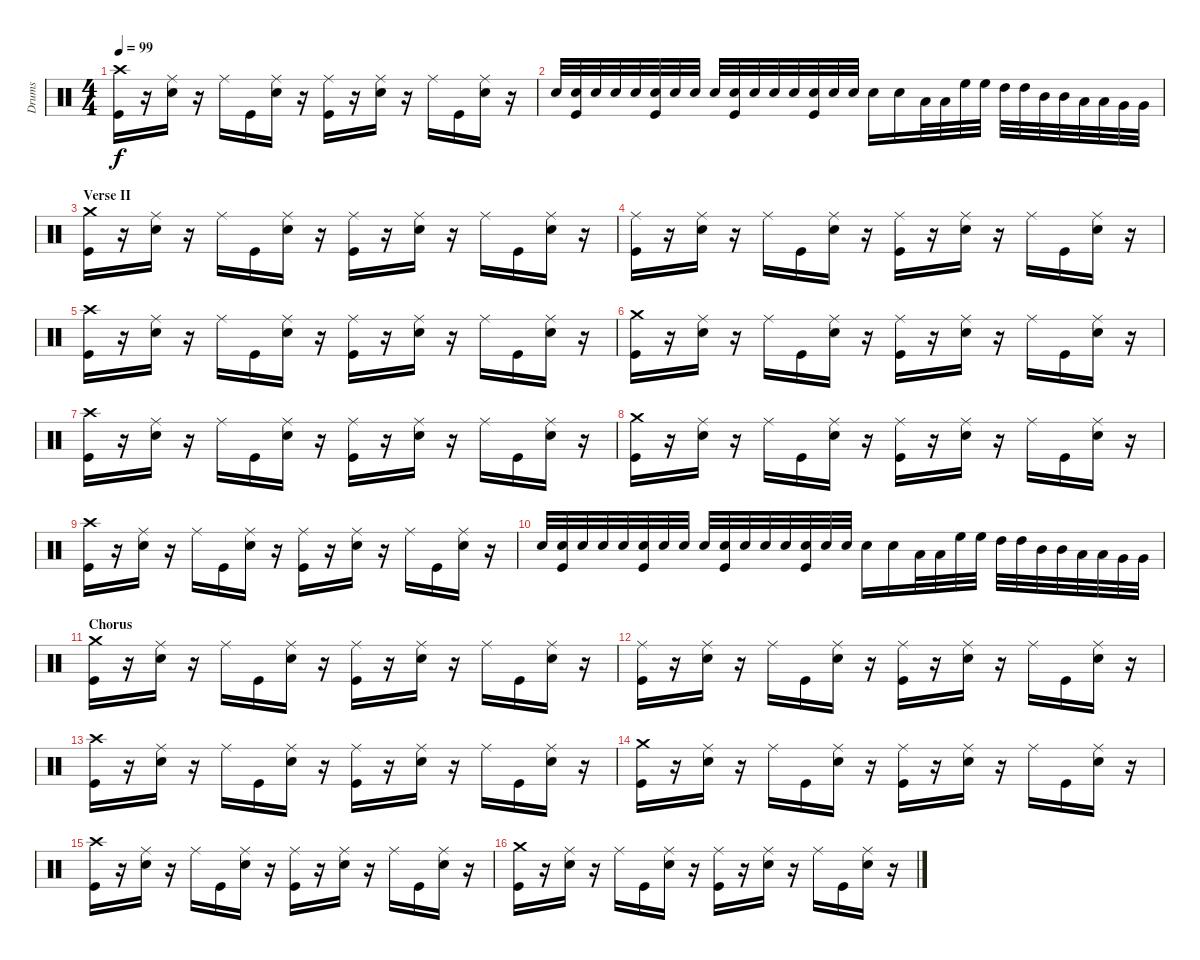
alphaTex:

\track ("Drums" "Drums") {instrument percussion}
\staff {score}
\articulation defaults
\ts (4 4)
\tempo 99
\clef neutral
\ks c
("Crash high (hit)" "Kick (hit)").16{dy f} r.16 ("Ride (middle)" "Electric Snare (hit)").16 r.16 "Ride (middle)".16 "Kick (hit)".16 ("Ride (middle)" "Electric Snare (hit)").16 r.16 ("Ride (middle)" "Kick (hit)").16 r.16 ("Ride (middle)" "Electric Snare (hit)").16 r.16 "Ride (middle)".16 "Kick (hit)".16 ("Ride (middle)" "Electric Snare (hit)").16 r.16 |
"Electric Snare (hit)".32 ("Electric Snare (hit)" "Kick (hit)").32 "Electric Snare (hit)".32 "Electric Snare (hit)".32 "Electric Snare (hit)".32 ("Electric Snare (hit)" "Kick (hit)").32 "Electric Snare (hit)".32 "Electric Snare (hit)".32 "Electric Snare (hit)".32 ("Electric Snare (hit)" "Kick (hit)").32 "Electric Snare (hit)".32 "Electric Snare (hit)".32 "Electric Snare (hit)".32 ("Electric Snare (hit)" "Kick (hit)").32 "Electric Snare (hit)".32 "Electric Snare (hit)".32 "Electric Snare (hit)".16 "Electric Snare (hit)".16 "Low Floor Tom (hit)".32 "Low Floor Tom (hit)".32 "High Floor Tom (hit)".32 "High Floor Tom (hit)".32 "High Tom (hit)".32 "High Tom (hit)".32 "Mid Tom (hit)".32 "Mid Tom (hit)".32 "Low Tom (hit)".32 "Low Tom (hit)".32 "Very Low Tom (hit)".32 "Very Low Tom (hit)".32 |
\section ("" "Verse II")
("Crash medium (hit)" "Kick (hit)").16 r.16 ("Ride (middle)" "Electric Snare (hit)").16 r.16 "Ride (middle)".16 "Kick (hit)".16 ("Ride (middle)" "Electric Snare (hit)").16 r.16 ("Ride (middle)" "Kick (hit)").16 r.16 ("Ride (middle)" "Electric Snare (hit)").16 r.16 "Ride (middle)".16 "Kick (hit)".16 ("Ride (middle)" "Electric Snare (hit)").16 r.16 |
("Ride (middle)" "Kick (hit)").16 r.16 ("Ride (middle)" "Electric Snare (hit)").16 r.16 "Ride (middle)".16 "Kick (hit)".16 ("Ride (middle)" "Electric Snare (hit)").16 r.16 ("Ride (middle)" "Kick (hit)").16 r.16 ("Ride (middle)" "Electric Snare (hit)").16 r.16 "Ride (middle)".16 "Kick (hit)".16 ("Ride (middle)" "Electric Snare (hit)").16 r.16 |
("Crash high (hit)" "Kick (hit)").16 r.16 ("Ride (middle)" "Electric Snare (hit)").16 r.16 "Ride (middle)".16 "Kick (hit)".16 ("Ride (middle)" "Electric Snare (hit)").16 r.16 ("Ride (middle)" "Kick (hit)").16 r.16 ("Ride (middle)" "Electric Snare (hit)").16 r.16 "Ride (middle)".16 "Kick (hit)".16 ("Ride (middle)" "Electric Snare (hit)").16 r.16 |
("Crash medium (hit)" "Kick (hit)").16 r.16 ("Ride (middle)" "Electric Snare (hit)").16 r.16 "Ride (middle)".16 "Kick (hit)".16 ("Ride (middle)" "Electric Snare (hit)").16 r.16 ("Ride (middle)" "Kick (hit)").16 r.16 ("Ride (middle)" "Electric Snare (hit)").16 r.16 "Ride (middle)".16 "Kick (hit)".16 ("Ride (middle)" "Electric Snare (hit)").16 r.16 |
("Crash high (hit)" "Kick (hit)").16 r.16 ("Ride (middle)" "Electric Snare (hit)").16 r.16 "Ride (middle)".16 "Kick (hit)".16 ("Ride (middle)" "Electric Snare (hit)").16 r.16 ("Ride (middle)" "Kick (hit)").16 r.16 ("Ride (middle)" "Electric Snare (hit)").16 r.16 "Ride (middle)".16 "Kick (hit)".16 ("Ride (middle)" "Electric Snare (hit)").16 r.16 |
("Crash medium (hit)" "Kick (hit)").16 r.16 ("Ride (middle)" "Electric Snare (hit)").16 r.16 "Ride (middle)".16 "Kick (hit)".16 ("Ride (middle)" "Electric Snare (hit)").16 r.16 ("Ride (middle)" "Kick (hit)").16 r.16 ("Ride (middle)" "Electric Snare (hit)").16 r.16 "Ride (middle)".16 "Kick (hit)".16 ("Ride (middle)" "Electric Snare (hit)").16 r.16 |
("Crash high (hit)" "Kick (hit)").16 r.16 ("Ride (middle)" "Electric Snare (hit)").16 r.16 "Ride (middle)".16 "Kick (hit)".16 ("Ride (middle)" "Electric Snare (hit)").16 r.16 ("Ride (middle)" "Kick (hit)").16 r.16 ("Ride (middle)" "Electric Snare (hit)").16 r.16 "Ride (middle)".16 "Kick (hit)".16 ("Ride (middle)" "Electric Snare (hit)").16 r.16 |
"Electric Snare (hit)".32 ("Electric Snare (hit)" "Kick (hit)").32 "Electric Snare (hit)".32 "Electric Snare (hit)".32 "Electric Snare (hit)".32 ("Electric Snare (hit)" "Kick (hit)").32 "Electric Snare (hit)".32 "Electric Snare (hit)".32 "Electric Snare (hit)".32 ("Electric Snare (hit)" "Kick (hit)").32 "Electric Snare (hit)".32 "Electric Snare (hit)".32 "Electric Snare (hit)".32 ("Electric Snare (hit)" "Kick (hit)").32 "Electric Snare (hit)".32 "Electric Snare (hit)".32 "Electric Snare (hit)".16 "Electric Snare (hit)".16 "Low Floor Tom (hit)".32 "Low Floor Tom (hit)".32 "High Floor Tom (hit)".32 "High Floor Tom (hit)".32 "High Tom (hit)".32 "High Tom (hit)".32 "Mid Tom (hit)".32 "Mid Tom (hit)".32 "Low Tom (hit)".32 "Low Tom (hit)".32 "Very Low Tom (hit)".32 "Very Low Tom (hit)".32 |
\section ("" "Chorus")
("Crash medium (hit)" "Kick (hit)").16 r.16 ("Ride (middle)" "Electric Snare (hit)").16 r.16 "Ride (middle)".16 "Kick (hit)".16 ("Ride (middle)" "Electric Snare (hit)").16 r.16 ("Ride (middle)" "Kick (hit)").16 r.16 ("Ride (middle)" "Electric Snare (hit)").16 r.16 "Ride (middle)".16 "Kick (hit)".16 ("Ride (middle)" "Electric Snare (hit)").16 r.16 |
("Ride (middle)" "Kick (hit)").16 r.16 ("Ride (middle)" "Electric Snare (hit)").16 r.16 "Ride (middle)".16 "Kick (hit)".16 ("Ride (middle)" "Electric Snare (hit)").16 r.16 ("Ride (middle)" "Kick (hit)").16 r.16 ("Ride (middle)" "Electric Snare (hit)").16 r.16 "Ride (middle)".16 "Kick (hit)".16 ("Ride (middle)" "Electric Snare (hit)").16 r.16 |
("Crash high (hit)" "Kick (hit)").16 r.16 ("Ride (middle)" "Electric Snare (hit)").16 r.16 "Ride (middle)".16 "Kick (hit)".16 ("Ride (middle)" "Electric Snare (hit)").16 r.16 ("Ride (middle)" "Kick (hit)").16 r.16 ("Ride (middle)" "Electric Snare (hit)").16 r.16 "Ride (middle)".16 "Kick (hit)".16 ("Ride (middle)" "Electric Snare (hit)").16 r.16 |
("Crash medium (hit)" "Kick (hit)").16 r.16 ("Ride (middle)" "Electric Snare (hit)").16 r.16 "Ride (middle)".16 "Kick (hit)".16 ("Ride (middle)" "Electric Snare (hit)").16 r.16 ("Ride (middle)" "Kick (hit)").16 r.16 ("Ride (middle)" "Electric Snare (hit)").16 r.16 "Ride (middle)".16 "Kick (hit)".16 ("Ride (middle)" "Electric Snare (hit)").16 r.16 |
("Crash high (hit)" "Kick (hit)").16 r.16 ("Ride (middle)" "Electric Snare (hit)").16 r.16 "Ride (middle)".16 "Kick (hit)".16 ("Ride (middle)" "Electric Snare (hit)").16 r.16 ("Ride (middle)" "Kick (hit)").16 r.16 ("Ride (middle)" "Electric Snare (hit)").16 r.16 "Ride (middle)".16 "Kick (hit)".16 ("Ride (middle)" "Electric Snare (hit)").16 r.16 |
("Crash medium (hit)" "Kick (hit)").16 r.16 ("Ride (middle)" "Electric Snare (hit)").16 r.16 "Ride (middle)".16 "Kick (hit)".16 ("Ride (middle)" "Electric Snare (hit)").16 r.16 ("Ride (middle)" "Kick (hit)").16 r.16 ("Ride (middle)" "Electric Snare (hit)").16 r.16 "Ride (middle)".16 "Kick (hit)".16 ("Ride (middle)" "Electric Snare (hit)").16 r.16
